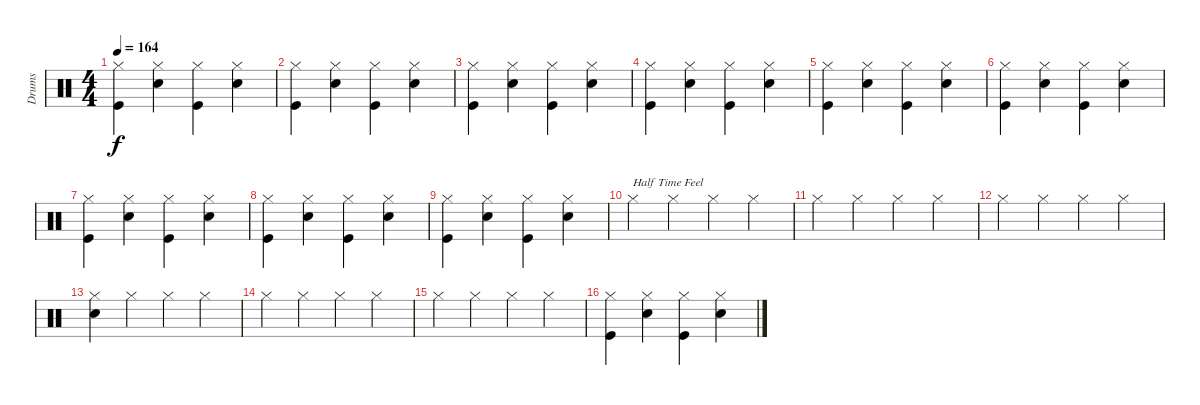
\track ("Drums" "Drums") {instrument percussion}
\staff {score}
\articulation defaults
\ts (4 4)
\tempo 164
\clef neutral
\ks c
("Hi-Hat (closed)" "Kick (hit)").4{dy f} ("Hi-Hat (closed)" "Snare (hit) 2").4 ("Hi-Hat (closed)" "Kick (hit)").4 ("Hi-Hat (closed)" "Snare (hit) 2").4 |
("Hi-Hat (closed)" "Kick (hit)").4 ("Hi-Hat (closed)" "Snare (hit) 2").4 ("Hi-Hat (closed)" "Kick (hit)").4 ("Hi-Hat (closed)" "Snare (hit) 2").4 |
("Hi-Hat (closed)" "Kick (hit)").4 ("Hi-Hat (closed)" "Snare (hit) 2").4 ("Hi-Hat (closed)" "Kick (hit)").4 ("Hi-Hat (closed)" "Snare (hit) 2").4 |
("Hi-Hat (closed)" "Kick (hit)").4 ("Hi-Hat (closed)" "Snare (hit) 2").4 ("Hi-Hat (closed)" "Kick (hit)").4 ("Hi-Hat (closed)" "Snare (hit) 2").4 |
("Hi-Hat (closed)" "Kick (hit)").4 ("Hi-Hat (closed)" "Snare (hit) 2").4 ("Hi-Hat (closed)" "Kick (hit)").4 ("Hi-Hat (closed)" "Snare (hit) 2").4 |
("Hi-Hat (closed)" "Kick (hit)").4 ("Hi-Hat (closed)" "Snare (hit) 2").4 ("Hi-Hat (closed)" "Kick (hit)").4 ("Hi-Hat (closed)" "Snare (hit) 2").4 |
("Hi-Hat (closed)" "Kick (hit)").4 ("Hi-Hat (closed)" "Snare (hit) 2").4 ("Hi-Hat (closed)" "Kick (hit)").4 ("Hi-Hat (closed)" "Snare (hit) 2").4 |
("Hi-Hat (closed)" "Kick (hit)").4 ("Hi-Hat (closed)" "Snare (hit) 2").4 ("Hi-Hat (closed)" "Kick (hit)").4 ("Hi-Hat (closed)" "Snare (hit) 2").4 |
("Hi-Hat (closed)" "Kick (hit)").4 ("Hi-Hat (closed)" "Snare (hit) 2").4 ("Hi-Hat (closed)" "Kick (hit)").4 ("Hi-Hat (closed)" "Snare (hit) 2").4 |
"Hi-Hat (closed)".4{txt "Half Time Feel"} "Hi-Hat (closed)".4 "Hi-Hat (closed)".4 "Hi-Hat (closed)".4 |
"Hi-Hat (closed)".4 "Hi-Hat (closed)".4 "Hi-Hat (closed)".4 "Hi-Hat (closed)".4 |
"Hi-Hat (closed)".4 "Hi-Hat (closed)".4 "Hi-Hat (closed)".4 "Hi-Hat (closed)".4 |
("Electric Snare (hit)" "Hi-Hat (closed)").4 "Hi-Hat (closed)".4 "Hi-Hat (closed)".4 "Hi-Hat (closed)".4 |
"Hi-Hat (closed)".4 "Hi-Hat (closed)".4 "Hi-Hat (closed)".4 "Hi-Hat (closed)".4 |
"Hi-Hat (closed)".4 "Hi-Hat (closed)".4 "Hi-Hat (closed)".4 "Hi-Hat (closed)".4 |
("Hi-Hat (closed)" "Kick (hit)").4 ("Hi-Hat (closed)" "Snare (hit) 2").4 ("Hi-Hat (closed)" "Kick (hit)").4 ("Hi-Hat (closed)" "Snare (hit) 2").4
